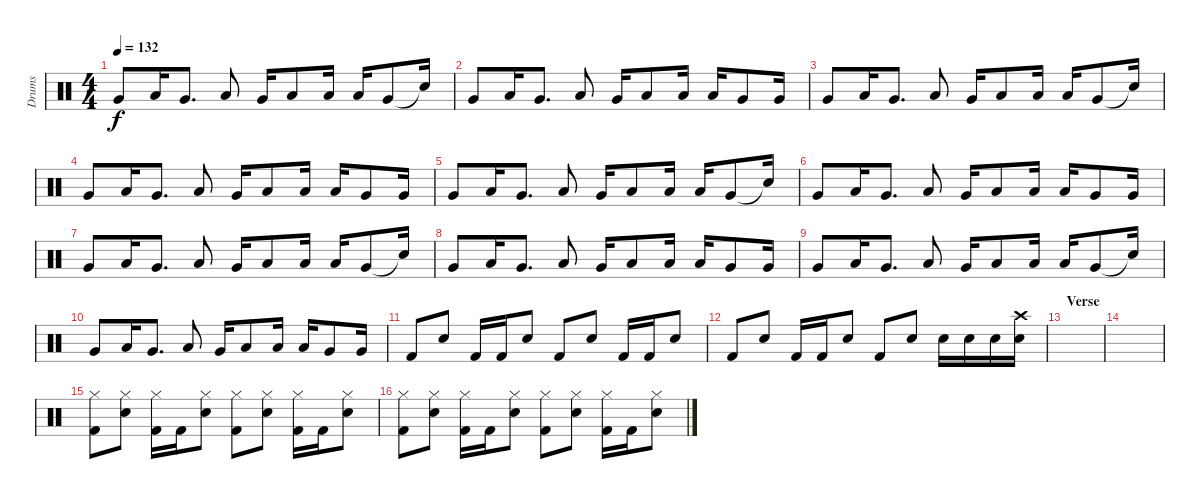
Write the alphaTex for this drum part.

\track ("Drums" "Drums") {instrument percussion}
\staff {score}
\articulation defaults
\ts (4 4)
\tempo 132
\clef neutral
\ks c "Very Low Tom (hit)".8{dy f} "Low Floor Tom (hit)".16 "Very Low Tom (hit)".8{d} "Low Floor Tom (hit)".8 "Very Low Tom (hit)".16 "Low Floor Tom (hit)".8 "Low Floor Tom (hit)".16 "Low Floor Tom (hit)".16 "Very Low Tom (hit)".8 "Snare (hit)"{t}.16
|
"Very Low Tom (hit)".8 "Low Floor Tom (hit)".16 "Very Low Tom (hit)".8{d} "Low Floor Tom (hit)".8 "Very Low Tom (hit)".16 "Low Floor Tom (hit)".8 "Low Floor Tom (hit)".16 "Low Floor Tom (hit)".16 "Very Low Tom (hit)".8 "Very Low Tom (hit)".16 |
"Very Low Tom (hit)".8 "Low Floor Tom (hit)".16 "Very Low Tom (hit)".8{d} "Low Floor Tom (hit)".8 "Very Low Tom (hit)".16 "Low Floor Tom (hit)".8 "Low Floor Tom (hit)".16 "Low Floor Tom (hit)".16 "Very Low Tom (hit)".8 "Snare (hit)"{t}.16 |
"Very Low Tom (hit)".8 "Low Floor Tom (hit)".16 "Very Low Tom (hit)".8{d} "Low Floor Tom (hit)".8 "Very Low Tom (hit)".16 "Low Floor Tom (hit)".8 "Low Floor Tom (hit)".16 "Low Floor Tom (hit)".16 "Very Low Tom (hit)".8 "Very Low Tom (hit)".16 |
"Very Low Tom (hit)".8 "Low Floor Tom (hit)".16 "Very Low Tom (hit)".8{d} "Low Floor Tom (hit)".8 "Very Low Tom (hit)".16 "Low Floor Tom (hit)".8 "Low Floor Tom (hit)".16 "Low Floor Tom (hit)".16 "Very Low Tom (hit)".8 "Snare (hit)"{t}.16 |
"Very Low Tom (hit)".8 "Low Floor Tom (hit)".16 "Very Low Tom (hit)".8{d} "Low Floor Tom (hit)".8 "Very Low Tom (hit)".16 "Low Floor Tom (hit)".8 "Low Floor Tom (hit)".16 "Low Floor Tom (hit)".16 "Very Low Tom (hit)".8 "Very Low Tom (hit)".16 |
"Very Low Tom (hit)".8 "Low Floor Tom (hit)".16 "Very Low Tom (hit)".8{d} "Low Floor Tom (hit)".8 "Very Low Tom (hit)".16 "Low Floor Tom (hit)".8 "Low Floor Tom (hit)".16 "Low Floor Tom (hit)".16 "Very Low Tom (hit)".8 "Snare (hit)"{t}.16 |
"Very Low Tom (hit)".8 "Low Floor Tom (hit)".16 "Very Low Tom (hit)".8{d} "Low Floor Tom (hit)".8 "Very Low Tom (hit)".16 "Low Floor Tom (hit)".8 "Low Floor Tom (hit)".16 "Low Floor Tom (hit)".16 "Very Low Tom (hit)".8 "Very Low Tom (hit)".16 |
"Very Low Tom (hit)".8 "Low Floor Tom (hit)".16 "Very Low Tom (hit)".8{d} "Low Floor Tom (hit)".8 "Very Low Tom (hit)".16 "Low Floor Tom (hit)".8 "Low Floor Tom (hit)".16 "Low Floor Tom (hit)".16 "Very Low Tom (hit)".8 "Snare (hit)"{t}.16 |
"Very Low Tom (hit)".8 "Low Floor Tom (hit)".16 "Very Low Tom (hit)".8{d} "Low Floor Tom (hit)".8 "Very Low Tom (hit)".16 "Low Floor Tom (hit)".8 "Low Floor Tom (hit)".16 "Low Floor Tom (hit)".16 "Very Low Tom (hit)".8 "Very Low Tom (hit)".16 |
"Kick (hit) 2".8{volume 14} "Snare (hit) 2".8 "Kick (hit) 2".16 "Kick (hit) 2".16 "Snare (hit) 2".8 "Kick (hit) 2".8 "Snare (hit) 2".8 "Kick (hit) 2".16 "Kick (hit) 2".16 "Snare (hit) 2".8 |
"Kick (hit) 2".8 "Snare (hit) 2".8 "Kick (hit) 2".16 "Kick (hit) 2".16 "Snare (hit) 2".8 "Kick (hit) 2".8 "Snare (hit) 2".8 "Snare (hit) 2".16 "Snare (hit) 2".16 "Snare (hit) 2".16 ("Snare (hit) 2" "Crash high (hit)").16 |
\section ("" "Verse")
|
|
("Kick (hit) 2" "Hi-Hat (closed)").8 ("Snare (hit) 2" "Hi-Hat (closed)").8 ("Kick (hit) 2" "Hi-Hat (closed)").16 "Kick (hit) 2".16 ("Snare (hit) 2" "Hi-Hat (closed)").8 ("Kick (hit) 2" "Hi-Hat (closed)").8 ("Snare (hit) 2" "Hi-Hat (closed)").8 ("Kick (hit) 2" "Hi-Hat (closed)").16 "Kick (hit) 2".16 ("Snare (hit) 2" "Hi-Hat (closed)").8 |
("Kick (hit) 2" "Hi-Hat (closed)").8 ("Snare (hit) 2" "Hi-Hat (closed)").8 ("Kick (hit) 2" "Hi-Hat (closed)").16 "Kick (hit) 2".16 ("Snare (hit) 2" "Hi-Hat (closed)").8 ("Kick (hit) 2" "Hi-Hat (closed)").8 ("Snare (hit) 2" "Hi-Hat (closed)").8 ("Kick (hit) 2" "Hi-Hat (closed)").16 "Kick (hit) 2".16 ("Snare (hit) 2" "Hi-Hat (closed)").8
